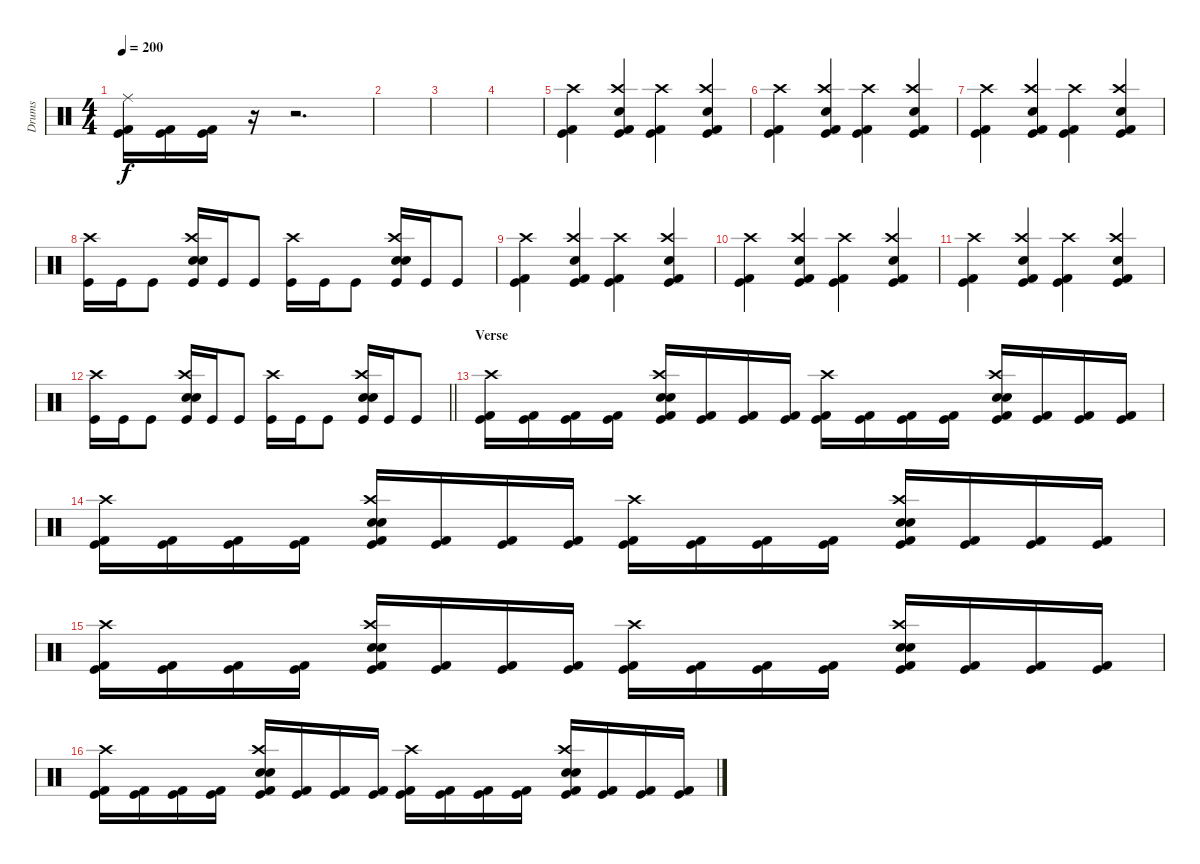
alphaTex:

\track ("Drums" "Drums") {instrument percussion}
\staff {score}
\articulation defaults
\ts (4 4)
\tempo 200
\clef neutral
\ks c
("Ride (middle)" "Kick (hit) 2" "Kick (hit)").16{dy f} ("Kick (hit) 2" "Kick (hit)").16 ("Kick (hit) 2" "Kick (hit)").16 r.16 r.2{d} |
|
|
|
("Crash high (hit)" "Kick (hit) 2" "Kick (hit)").4 ("Crash high (hit)" "Electric Snare (hit)" "Kick (hit) 2" "Kick (hit)").4 ("Crash high (hit)" "Kick (hit) 2" "Kick (hit)").4 ("Crash high (hit)" "Electric Snare (hit)" "Kick (hit) 2" "Kick (hit)").4 |
("Crash high (hit)" "Kick (hit) 2" "Kick (hit)").4 ("Crash high (hit)" "Electric Snare (hit)" "Kick (hit) 2" "Kick (hit)").4 ("Crash high (hit)" "Kick (hit) 2" "Kick (hit)").4 ("Crash high (hit)" "Electric Snare (hit)" "Kick (hit) 2" "Kick (hit)").4 |
("Crash high (hit)" "Kick (hit) 2" "Kick (hit)").4 ("Crash high (hit)" "Electric Snare (hit)" "Kick (hit) 2" "Kick (hit)").4 ("Crash high (hit)" "Kick (hit) 2" "Kick (hit)").4 ("Crash high (hit)" "Electric Snare (hit)" "Kick (hit) 2" "Kick (hit)").4 |
("Crash high (hit)" "Kick (hit)").16 "Kick (hit)".16 "Kick (hit)".8 ("Crash high (hit)" "Electric Snare (hit)" "Electric Snare (hit)" "Kick (hit)").16 "Kick (hit)".16 "Kick (hit)".8 ("Crash high (hit)" "Kick (hit)").16 "Kick (hit)".16 "Kick (hit)".8 ("Crash high (hit)" "Electric Snare (hit)" "Electric Snare (hit)" "Kick (hit)").16 "Kick (hit)".16 "Kick (hit)".8 |
("Crash high (hit)" "Kick (hit) 2" "Kick (hit)").4 ("Crash high (hit)" "Electric Snare (hit)" "Kick (hit) 2" "Kick (hit)").4 ("Crash high (hit)" "Kick (hit) 2" "Kick (hit)").4 ("Crash high (hit)" "Electric Snare (hit)" "Kick (hit) 2" "Kick (hit)").4 |
("Crash high (hit)" "Kick (hit) 2" "Kick (hit)").4 ("Crash high (hit)" "Electric Snare (hit)" "Kick (hit) 2" "Kick (hit)").4 ("Crash high (hit)" "Kick (hit) 2" "Kick (hit)").4 ("Crash high (hit)" "Electric Snare (hit)" "Kick (hit) 2" "Kick (hit)").4 |
("Crash high (hit)" "Kick (hit) 2" "Kick (hit)").4 ("Crash high (hit)" "Electric Snare (hit)" "Kick (hit) 2" "Kick (hit)").4 ("Crash high (hit)" "Kick (hit) 2" "Kick (hit)").4 ("Crash high (hit)" "Electric Snare (hit)" "Kick (hit) 2" "Kick (hit)").4 |
\barLineRight lightlight
("Crash high (hit)" "Kick (hit)").16 "Kick (hit)".16 "Kick (hit)".8 ("Crash high (hit)" "Electric Snare (hit)" "Electric Snare (hit)" "Kick (hit)").16 "Kick (hit)".16 "Kick (hit)".8 ("Crash high (hit)" "Kick (hit)").16 "Kick (hit)".16 "Kick (hit)".8 ("Crash high (hit)" "Electric Snare (hit)" "Electric Snare (hit)" "Kick (hit)").16 "Kick (hit)".16 "Kick (hit)".8 |
\section ("" "Verse")
("Crash high (hit)" "Kick (hit) 2" "Kick (hit)").16 ("Kick (hit) 2" "Kick (hit)").16 ("Kick (hit) 2" "Kick (hit)").16 ("Kick (hit) 2" "Kick (hit)").16 ("Crash high (hit)" "Electric Snare (hit)" "Electric Snare (hit)" "Kick (hit) 2" "Kick (hit)").16 ("Kick (hit) 2" "Kick (hit)").16 ("Kick (hit) 2" "Kick (hit)").16 ("Kick (hit) 2" "Kick (hit)").16 ("Crash high (hit)" "Kick (hit) 2" "Kick (hit)").16 ("Kick (hit) 2" "Kick (hit)").16 ("Kick (hit) 2" "Kick (hit)").16 ("Kick (hit) 2" "Kick (hit)").16 ("Crash high (hit)" "Electric Snare (hit)" "Electric Snare (hit)" "Kick (hit) 2" "Kick (hit)").16 ("Kick (hit) 2" "Kick (hit)").16 ("Kick (hit) 2" "Kick (hit)").16 ("Kick (hit) 2" "Kick (hit)").16 |
("Crash high (hit)" "Kick (hit) 2" "Kick (hit)").16 ("Kick (hit) 2" "Kick (hit)").16 ("Kick (hit) 2" "Kick (hit)").16 ("Kick (hit) 2" "Kick (hit)").16 ("Crash high (hit)" "Electric Snare (hit)" "Electric Snare (hit)" "Kick (hit) 2" "Kick (hit)").16 ("Kick (hit) 2" "Kick (hit)").16 ("Kick (hit) 2" "Kick (hit)").16 ("Kick (hit) 2" "Kick (hit)").16 ("Crash high (hit)" "Kick (hit) 2" "Kick (hit)").16 ("Kick (hit) 2" "Kick (hit)").16 ("Kick (hit) 2" "Kick (hit)").16 ("Kick (hit) 2" "Kick (hit)").16 ("Crash high (hit)" "Electric Snare (hit)" "Electric Snare (hit)" "Kick (hit) 2" "Kick (hit)").16 ("Kick (hit) 2" "Kick (hit)").16 ("Kick (hit) 2" "Kick (hit)").16 ("Kick (hit) 2" "Kick (hit)").16 |
("Crash high (hit)" "Kick (hit) 2" "Kick (hit)").16 ("Kick (hit) 2" "Kick (hit)").16 ("Kick (hit) 2" "Kick (hit)").16 ("Kick (hit) 2" "Kick (hit)").16 ("Crash high (hit)" "Electric Snare (hit)" "Electric Snare (hit)" "Kick (hit) 2" "Kick (hit)").16 ("Kick (hit) 2" "Kick (hit)").16 ("Kick (hit) 2" "Kick (hit)").16 ("Kick (hit) 2" "Kick (hit)").16 ("Crash high (hit)" "Kick (hit) 2" "Kick (hit)").16 ("Kick (hit) 2" "Kick (hit)").16 ("Kick (hit) 2" "Kick (hit)").16 ("Kick (hit) 2" "Kick (hit)").16 ("Crash high (hit)" "Electric Snare (hit)" "Electric Snare (hit)" "Kick (hit) 2" "Kick (hit)").16 ("Kick (hit) 2" "Kick (hit)").16 ("Kick (hit) 2" "Kick (hit)").16 ("Kick (hit) 2" "Kick (hit)").16 |
("Crash high (hit)" "Kick (hit) 2" "Kick (hit)").16 ("Kick (hit) 2" "Kick (hit)").16 ("Kick (hit) 2" "Kick (hit)").16 ("Kick (hit) 2" "Kick (hit)").16 ("Crash high (hit)" "Electric Snare (hit)" "Electric Snare (hit)" "Kick (hit) 2" "Kick (hit)").16 ("Kick (hit) 2" "Kick (hit)").16 ("Kick (hit) 2" "Kick (hit)").16 ("Kick (hit) 2" "Kick (hit)").16 ("Crash high (hit)" "Kick (hit) 2" "Kick (hit)").16 ("Kick (hit) 2" "Kick (hit)").16 ("Kick (hit) 2" "Kick (hit)").16 ("Kick (hit) 2" "Kick (hit)").16 ("Crash high (hit)" "Electric Snare (hit)" "Electric Snare (hit)" "Kick (hit) 2" "Kick (hit)").16 ("Kick (hit) 2" "Kick (hit)").16 ("Kick (hit) 2" "Kick (hit)").16 ("Kick (hit) 2" "Kick (hit)").16
